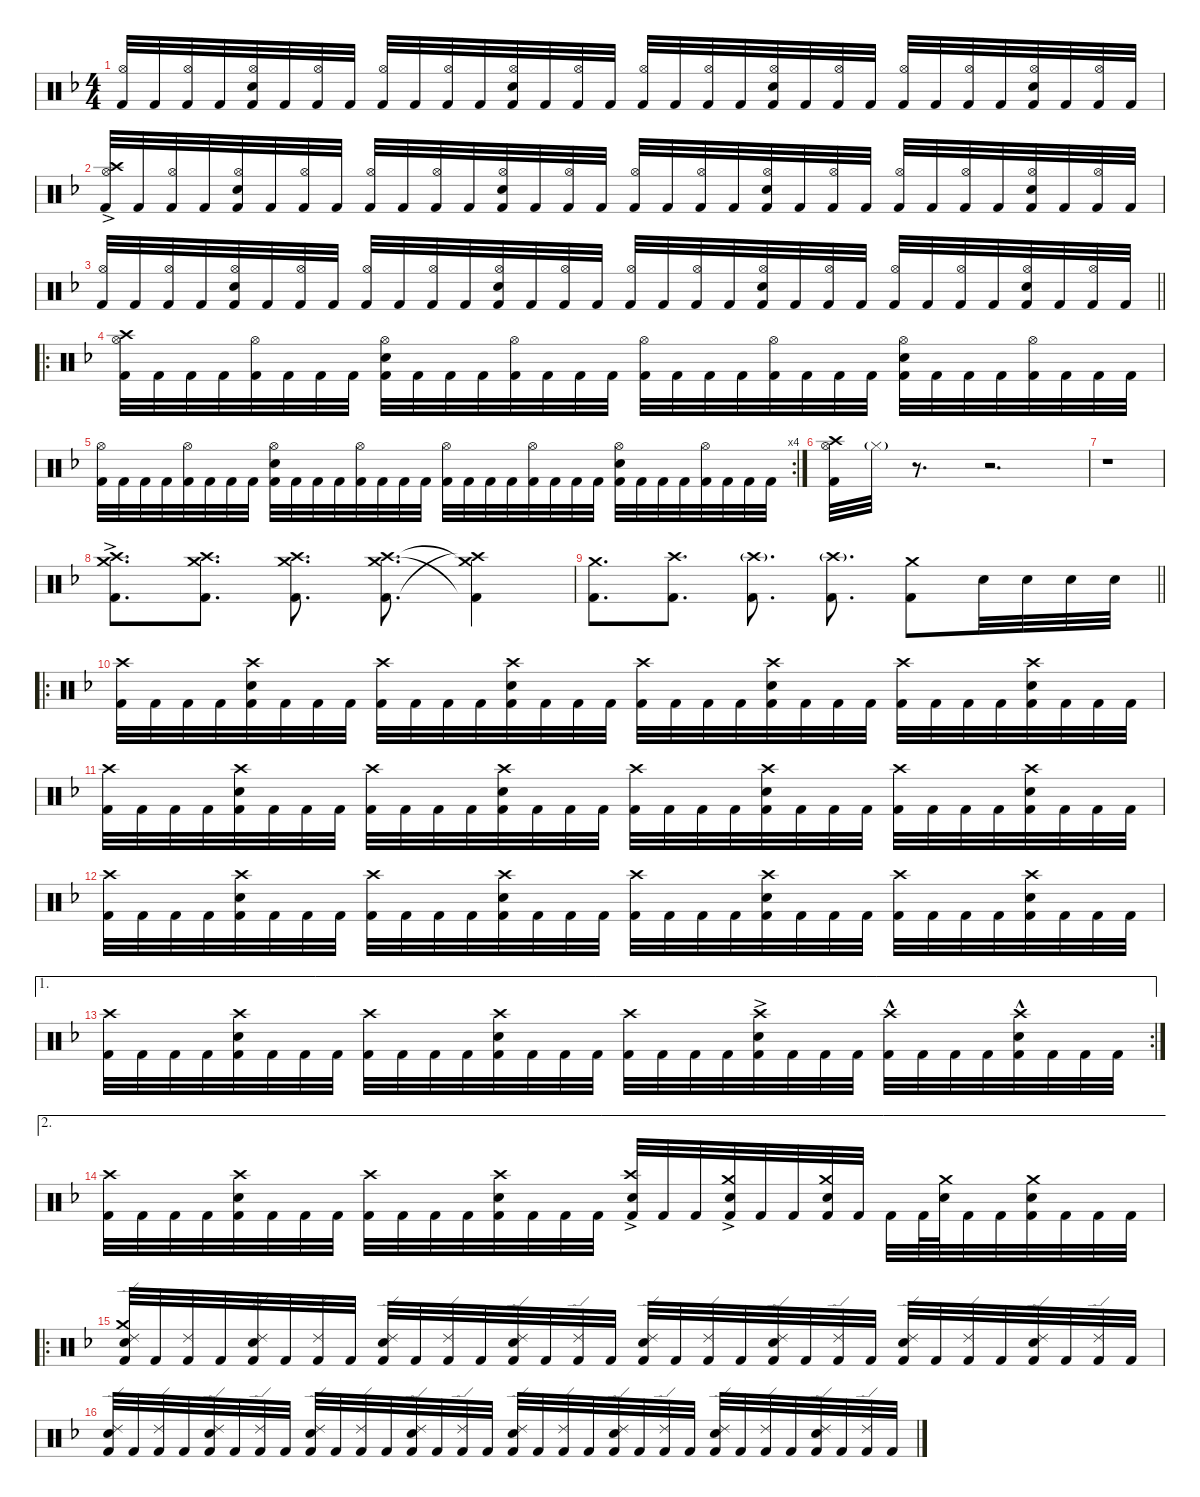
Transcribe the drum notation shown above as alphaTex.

\defaultSystemsLayout 4
\hideDynamics
\bracketExtendMode nobrackets
\singleTrackTrackNamePolicy hidden
\multiTrackTrackNamePolicy hidden
\otherSystemsTrackNameOrientation horizontal
\track ("Martin Lopez - Drums" "drm.") {defaultSystemsLayout 4 instrument percussion}
\staff {score}
\articulation defaults
\ts (4 4)
\tempo (85 hide)
\clef neutral
\ks dminor
("Hi-Hat (open)"{acc forcenatural} "Kick (hit) 2"{acc forcenatural}).32{dy f beam Up} "Kick (hit) 2"{acc forcenatural}.32{beam Up} ("Hi-Hat (open)"{acc forcenatural} "Kick (hit) 2"{acc forcenatural}).32{beam Up} "Kick (hit) 2"{acc forcenatural}.32{beam Up} ("Hi-Hat (open)"{acc forcenatural} "Snare (hit) 2"{acc forcenatural} "Kick (hit) 2"{acc forcenatural}).32{beam Up} "Kick (hit) 2"{acc forcenatural}.32{beam Up} ("Hi-Hat (open)"{acc forcenatural} "Kick (hit) 2"{acc forcenatural}).32{beam Up} "Kick (hit) 2"{acc forcenatural}.32{beam Up} ("Hi-Hat (open)"{acc forcenatural} "Kick (hit) 2"{acc forcenatural}).32{beam Up} "Kick (hit) 2"{acc forcenatural}.32{beam Up} ("Hi-Hat (open)"{acc forcenatural} "Kick (hit) 2"{acc forcenatural}).32{beam Up} "Kick (hit) 2"{acc forcenatural}.32{beam Up} ("Hi-Hat (open)"{acc forcenatural} "Snare (hit) 2"{acc forcenatural} "Kick (hit) 2"{acc forcenatural}).32{beam Up} "Kick (hit) 2"{acc forcenatural}.32{beam Up} ("Hi-Hat (open)"{acc forcenatural} "Kick (hit) 2"{acc forcenatural}).32{beam Up} "Kick (hit) 2"{acc forcenatural}.32{beam Up} ("Hi-Hat (open)"{acc forcenatural} "Kick (hit) 2"{acc forcenatural}).32{beam Up} "Kick (hit) 2"{acc forcenatural}.32{beam Up} ("Hi-Hat (open)"{acc forcenatural} "Kick (hit) 2"{acc forcenatural}).32{beam Up} "Kick (hit) 2"{acc forcenatural}.32{beam Up} ("Hi-Hat (open)"{acc forcenatural} "Snare (hit) 2"{acc forcenatural} "Kick (hit) 2"{acc forcenatural}).32{beam Up} "Kick (hit) 2"{acc forcenatural}.32{beam Up} ("Hi-Hat (open)"{acc forcenatural} "Kick (hit) 2"{acc forcenatural}).32{beam Up} "Kick (hit) 2"{acc forcenatural}.32{beam Up} ("Hi-Hat (open)"{acc forcenatural} "Kick (hit) 2"{acc forcenatural}).32{beam Up} "Kick (hit) 2"{acc forcenatural}.32{beam Up} ("Hi-Hat (open)"{acc forcenatural} "Kick (hit) 2"{acc forcenatural}).32{beam Up} "Kick (hit) 2"{acc forcenatural}.32{beam Up} ("Hi-Hat (open)"{acc forcenatural} "Snare (hit) 2"{acc forcenatural} "Kick (hit) 2"{acc forcenatural}).32{beam Up} "Kick (hit) 2"{acc forcenatural}.32{beam Up} ("Hi-Hat (open)"{acc forcenatural} "Kick (hit) 2"{acc forcenatural}).32{beam Up} "Kick (hit) 2"{acc forcenatural}.32{beam Up} |
\tempo (84 0.00625 hide)
("Crash high (hit)"{ac acc forcenatural} "Hi-Hat (open)"{acc forcenatural} "Kick (hit) 2"{acc forcenatural}).32{beam Up} "Kick (hit) 2"{acc forcenatural}.32{beam Up} ("Hi-Hat (open)"{acc forcenatural} "Kick (hit) 2"{acc forcenatural}).32{beam Up} "Kick (hit) 2"{acc forcenatural}.32{beam Up} ("Hi-Hat (open)"{acc forcenatural} "Snare (hit) 2"{acc forcenatural} "Kick (hit) 2"{acc forcenatural}).32{beam Up} "Kick (hit) 2"{acc forcenatural}.32{beam Up} ("Hi-Hat (open)"{acc forcenatural} "Kick (hit) 2"{acc forcenatural}).32{beam Up} "Kick (hit) 2"{acc forcenatural}.32{beam Up} ("Hi-Hat (open)"{acc forcenatural} "Kick (hit) 2"{acc forcenatural}).32{beam Up} "Kick (hit) 2"{acc forcenatural}.32{beam Up} ("Hi-Hat (open)"{acc forcenatural} "Kick (hit) 2"{acc forcenatural}).32{beam Up} "Kick (hit) 2"{acc forcenatural}.32{beam Up} ("Hi-Hat (open)"{acc forcenatural} "Snare (hit) 2"{acc forcenatural} "Kick (hit) 2"{acc forcenatural}).32{beam Up} "Kick (hit) 2"{acc forcenatural}.32{beam Up} ("Hi-Hat (open)"{acc forcenatural} "Kick (hit) 2"{acc forcenatural}).32{beam Up} "Kick (hit) 2"{acc forcenatural}.32{beam Up} ("Hi-Hat (open)"{acc forcenatural} "Kick (hit) 2"{acc forcenatural}).32{beam Up} "Kick (hit) 2"{acc forcenatural}.32{beam Up} ("Hi-Hat (open)"{acc forcenatural} "Kick (hit) 2"{acc forcenatural}).32{beam Up} "Kick (hit) 2"{acc forcenatural}.32{beam Up} ("Hi-Hat (open)"{acc forcenatural} "Snare (hit) 2"{acc forcenatural} "Kick (hit) 2"{acc forcenatural}).32{beam Up} "Kick (hit) 2"{acc forcenatural}.32{beam Up} ("Hi-Hat (open)"{acc forcenatural} "Kick (hit) 2"{acc forcenatural}).32{beam Up} "Kick (hit) 2"{acc forcenatural}.32{beam Up} ("Hi-Hat (open)"{acc forcenatural} "Kick (hit) 2"{acc forcenatural}).32{beam Up} "Kick (hit) 2"{acc forcenatural}.32{beam Up} ("Hi-Hat (open)"{acc forcenatural} "Kick (hit) 2"{acc forcenatural}).32{beam Up} "Kick (hit) 2"{acc forcenatural}.32{beam Up} ("Hi-Hat (open)"{acc forcenatural} "Snare (hit) 2"{acc forcenatural} "Kick (hit) 2"{acc forcenatural}).32{beam Up} "Kick (hit) 2"{acc forcenatural}.32{beam Up} ("Hi-Hat (open)"{acc forcenatural} "Kick (hit) 2"{acc forcenatural}).32{beam Up} "Kick (hit) 2"{acc forcenatural}.32{beam Up} |
\tempo (85 hide)
\barLineRight lightlight
("Hi-Hat (open)"{acc forcenatural} "Kick (hit) 2"{acc forcenatural}).32{beam Up} "Kick (hit) 2"{acc forcenatural}.32{beam Up} ("Hi-Hat (open)"{acc forcenatural} "Kick (hit) 2"{acc forcenatural}).32{beam Up} "Kick (hit) 2"{acc forcenatural}.32{beam Up} ("Hi-Hat (open)"{acc forcenatural} "Snare (hit) 2"{acc forcenatural} "Kick (hit) 2"{acc forcenatural}).32{beam Up} "Kick (hit) 2"{acc forcenatural}.32{beam Up} ("Hi-Hat (open)"{acc forcenatural} "Kick (hit) 2"{acc forcenatural}).32{beam Up} "Kick (hit) 2"{acc forcenatural}.32{beam Up} ("Hi-Hat (open)"{acc forcenatural} "Kick (hit) 2"{acc forcenatural}).32{beam Up} "Kick (hit) 2"{acc forcenatural}.32{beam Up} ("Hi-Hat (open)"{acc forcenatural} "Kick (hit) 2"{acc forcenatural}).32{beam Up} "Kick (hit) 2"{acc forcenatural}.32{beam Up} ("Hi-Hat (open)"{acc forcenatural} "Snare (hit) 2"{acc forcenatural} "Kick (hit) 2"{acc forcenatural}).32{beam Up} "Kick (hit) 2"{acc forcenatural}.32{beam Up} ("Hi-Hat (open)"{acc forcenatural} "Kick (hit) 2"{acc forcenatural}).32{beam Up} "Kick (hit) 2"{acc forcenatural}.32{beam Up} ("Hi-Hat (open)"{acc forcenatural} "Kick (hit) 2"{acc forcenatural}).32{beam Up} "Kick (hit) 2"{acc forcenatural}.32{beam Up} ("Hi-Hat (open)"{acc forcenatural} "Kick (hit) 2"{acc forcenatural}).32{beam Up} "Kick (hit) 2"{acc forcenatural}.32{beam Up} ("Hi-Hat (open)"{acc forcenatural} "Snare (hit) 2"{acc forcenatural} "Kick (hit) 2"{acc forcenatural}).32{beam Up} "Kick (hit) 2"{acc forcenatural}.32{beam Up} ("Hi-Hat (open)"{acc forcenatural} "Kick (hit) 2"{acc forcenatural}).32{beam Up} "Kick (hit) 2"{acc forcenatural}.32{beam Up} ("Hi-Hat (open)"{acc forcenatural} "Kick (hit) 2"{acc forcenatural}).32{beam Up} "Kick (hit) 2"{acc forcenatural}.32{beam Up} ("Hi-Hat (open)"{acc forcenatural} "Kick (hit) 2"{acc forcenatural}).32{beam Up} "Kick (hit) 2"{acc forcenatural}.32{beam Up} ("Hi-Hat (open)"{acc forcenatural} "Snare (hit) 2"{acc forcenatural} "Kick (hit) 2"{acc forcenatural}).32{beam Up} "Kick (hit) 2"{acc forcenatural}.32{beam Up} ("Hi-Hat (open)"{acc forcenatural} "Kick (hit) 2"{acc forcenatural}).32{beam Up} "Kick (hit) 2"{acc forcenatural}.32{beam Up} |
\ro
\tempo (84 hide)
("Crash high (hit)"{acc forcenatural} "Hi-Hat (open)"{acc forcenatural} "Kick (hit) 2"{acc forcenatural}).32{beam Down} "Kick (hit) 2"{acc forcenatural}.32{beam Down} "Kick (hit) 2"{acc forcenatural}.32{beam Down} "Kick (hit) 2"{acc forcenatural}.32{beam Down} ("Hi-Hat (open)"{acc forcenatural} "Kick (hit) 2"{acc forcenatural}).32{beam Down} "Kick (hit) 2"{acc forcenatural}.32{beam Down} "Kick (hit) 2"{acc forcenatural}.32{beam Down} "Kick (hit) 2"{acc forcenatural}.32{beam Down} ("Hi-Hat (open)"{acc forcenatural} "Snare (hit) 2"{acc forcenatural} "Kick (hit) 2"{acc forcenatural}).32{beam Down} "Kick (hit) 2"{acc forcenatural}.32{beam Down} "Kick (hit) 2"{acc forcenatural}.32{beam Down} "Kick (hit) 2"{acc forcenatural}.32{beam Down} ("Hi-Hat (open)"{acc forcenatural} "Kick (hit) 2"{acc forcenatural}).32{beam Down} "Kick (hit) 2"{acc forcenatural}.32{beam Down} "Kick (hit) 2"{acc forcenatural}.32{beam Down} "Kick (hit) 2"{acc forcenatural}.32{beam Down} ("Hi-Hat (open)"{acc forcenatural} "Kick (hit) 2"{acc forcenatural}).32{beam Down} "Kick (hit) 2"{acc forcenatural}.32{beam Down} "Kick (hit) 2"{acc forcenatural}.32{beam Down} "Kick (hit) 2"{acc forcenatural}.32{beam Down} ("Hi-Hat (open)"{acc forcenatural} "Kick (hit) 2"{acc forcenatural}).32{beam Down} "Kick (hit) 2"{acc forcenatural}.32{beam Down} "Kick (hit) 2"{acc forcenatural}.32{beam Down} "Kick (hit) 2"{acc forcenatural}.32{beam Down} ("Hi-Hat (open)"{acc forcenatural} "Snare (hit) 2"{acc forcenatural} "Kick (hit) 2"{acc forcenatural}).32{beam Down} "Kick (hit) 2"{acc forcenatural}.32{beam Down} "Kick (hit) 2"{acc forcenatural}.32{beam Down} "Kick (hit) 2"{acc forcenatural}.32{beam Down} ("Hi-Hat (open)"{acc forcenatural} "Kick (hit) 2"{acc forcenatural}).32{beam Down} "Kick (hit) 2"{acc forcenatural}.32{beam Down} "Kick (hit) 2"{acc forcenatural}.32{beam Down} "Kick (hit) 2"{acc forcenatural}.32{beam Down} |
\rc 4
\tempo (85 0.0125 hide)
("Hi-Hat (open)"{acc forcenatural} "Kick (hit) 2"{acc forcenatural}).32{beam Down} "Kick (hit) 2"{acc forcenatural}.32{beam Down} "Kick (hit) 2"{acc forcenatural}.32{beam Down} "Kick (hit) 2"{acc forcenatural}.32{beam Down} ("Hi-Hat (open)"{acc forcenatural} "Kick (hit) 2"{acc forcenatural}).32{beam Down} "Kick (hit) 2"{acc forcenatural}.32{beam Down} "Kick (hit) 2"{acc forcenatural}.32{beam Down} "Kick (hit) 2"{acc forcenatural}.32{beam Down} ("Hi-Hat (open)"{acc forcenatural} "Snare (hit) 2"{acc forcenatural} "Kick (hit) 2"{acc forcenatural}).32{beam Down} "Kick (hit) 2"{acc forcenatural}.32{beam Down} "Kick (hit) 2"{acc forcenatural}.32{beam Down} "Kick (hit) 2"{acc forcenatural}.32{beam Down} ("Hi-Hat (open)"{acc forcenatural} "Kick (hit) 2"{acc forcenatural}).32{beam Down} "Kick (hit) 2"{acc forcenatural}.32{beam Down} "Kick (hit) 2"{acc forcenatural}.32{beam Down} "Kick (hit) 2"{acc forcenatural}.32{beam Down} ("Hi-Hat (open)"{acc forcenatural} "Kick (hit) 2"{acc forcenatural}).32{beam Down} "Kick (hit) 2"{acc forcenatural}.32{beam Down} "Kick (hit) 2"{acc forcenatural}.32{beam Down} "Kick (hit) 2"{acc forcenatural}.32{beam Down} ("Hi-Hat (open)"{acc forcenatural} "Kick (hit) 2"{acc forcenatural}).32{beam Down} "Kick (hit) 2"{acc forcenatural}.32{beam Down} "Kick (hit) 2"{acc forcenatural}.32{beam Down} "Kick (hit) 2"{acc forcenatural}.32{beam Down} ("Hi-Hat (open)"{acc forcenatural} "Snare (hit) 2"{acc forcenatural} "Kick (hit) 2"{acc forcenatural}).32{beam Down} "Kick (hit) 2"{acc forcenatural}.32{beam Down} "Kick (hit) 2"{acc forcenatural}.32{beam Down} "Kick (hit) 2"{acc forcenatural}.32{beam Down} ("Hi-Hat (open)"{acc forcenatural} "Kick (hit) 2"{acc forcenatural}).32{beam Down} "Kick (hit) 2"{acc forcenatural}.32{beam Down} "Kick (hit) 2"{acc forcenatural}.32{beam Down} "Kick (hit) 2"{acc forcenatural}.32{beam Down} |
\tempo (84 0.00625 hide)
("Crash high (hit)"{acc forcenatural} "Hi-Hat (open)"{acc forcenatural} "Kick (hit) 2"{acc forcenatural}).32{beam Down} "Hi-Hat (closed)"{g acc forcenatural}.32{dy mf beam Down} r.8{d beam Down} r.2{d beam Down} |
\tempo (85 0.00625 hide)
r.1{beam Down} |
\tempo (84 0.0125 hide)
("Crash medium (hit)"{ac acc forcenatural} "Crash high (hit)"{ac acc forcenatural} "Kick (hit) 2"{ac acc forcenatural}).8{d dy f beam Down} ("Crash medium (hit)"{acc forcenatural} "Crash high (hit)"{acc forcenatural} "Kick (hit) 2"{acc forcenatural}).8{d beam Down} ("Crash medium (hit)"{acc forcenatural} "Crash high (hit)"{acc forcenatural} "Kick (hit) 2"{acc forcenatural}).8{d beam Down} ("Crash medium (hit)"{acc forcenatural} "Crash high (hit)"{acc forcenatural} "Kick (hit) 2"{acc forcenatural}).8{d beam Down} ("Kick (hit) 2"{t acc forcenatural} "Crash medium (hit)"{t acc forcenatural} "Crash high (hit)"{t acc forcenatural}).4{dy mf beam Down} |
\tempo (85 0.00625 hide)
\barLineRight lightlight
("Crash medium (hit)"{acc forcenatural} "Kick (hit) 2"{acc forcenatural}).8{d dy f beam Down} ("Crash high (hit)"{acc forcenatural} "Kick (hit) 2"{acc forcenatural}).8{d beam Down} ("Crash high (hit)"{g acc forcenatural} "Kick (hit) 2"{acc forcenatural}).8{d beam Down} ("Crash high (hit)"{g acc forcenatural} "Kick (hit) 2"{acc forcenatural}).8{d beam Down} ("Crash medium (hit)"{acc forcenatural} "Kick (hit) 2"{acc forcenatural}).8{beam Down} "Snare (hit) 2"{acc forcenatural}.32{beam Down} "Snare (hit) 2"{acc forcenatural}.32{beam Down} "Snare (hit) 2"{acc forcenatural}.32{beam Down} "Snare (hit) 2"{acc forcenatural}.32{beam Down} |
\ro
\tempo (84 0.00625 hide)
("Crash high (hit)"{acc forcenatural} "Kick (hit) 2"{acc forcenatural}).32{beam Down} "Kick (hit) 2"{acc forcenatural}.32{beam Down} "Kick (hit) 2"{acc forcenatural}.32{beam Down} "Kick (hit) 2"{acc forcenatural}.32{beam Down} ("Crash high (hit)"{acc forcenatural} "Snare (hit) 2"{acc forcenatural} "Kick (hit) 2"{acc forcenatural}).32{beam Down} "Kick (hit) 2"{acc forcenatural}.32{beam Down} "Kick (hit) 2"{acc forcenatural}.32{beam Down} "Kick (hit) 2"{acc forcenatural}.32{beam Down} ("Crash high (hit)"{acc forcenatural} "Kick (hit) 2"{acc forcenatural}).32{beam Down} "Kick (hit) 2"{acc forcenatural}.32{beam Down} "Kick (hit) 2"{acc forcenatural}.32{beam Down} "Kick (hit) 2"{acc forcenatural}.32{beam Down} ("Crash high (hit)"{acc forcenatural} "Snare (hit) 2"{acc forcenatural} "Kick (hit) 2"{acc forcenatural}).32{beam Down} "Kick (hit) 2"{acc forcenatural}.32{beam Down} "Kick (hit) 2"{acc forcenatural}.32{beam Down} "Kick (hit) 2"{acc forcenatural}.32{beam Down} ("Crash high (hit)"{acc forcenatural} "Kick (hit) 2"{acc forcenatural}).32{beam Down} "Kick (hit) 2"{acc forcenatural}.32{beam Down} "Kick (hit) 2"{acc forcenatural}.32{beam Down} "Kick (hit) 2"{acc forcenatural}.32{beam Down} ("Crash high (hit)"{acc forcenatural} "Snare (hit) 2"{acc forcenatural} "Kick (hit) 2"{acc forcenatural}).32{beam Down} "Kick (hit) 2"{acc forcenatural}.32{beam Down} "Kick (hit) 2"{acc forcenatural}.32{beam Down} "Kick (hit) 2"{acc forcenatural}.32{beam Down} ("Crash high (hit)"{acc forcenatural} "Kick (hit) 2"{acc forcenatural}).32{beam Down} "Kick (hit) 2"{acc forcenatural}.32{beam Down} "Kick (hit) 2"{acc forcenatural}.32{beam Down} "Kick (hit) 2"{acc forcenatural}.32{beam Down} ("Crash high (hit)"{acc forcenatural} "Snare (hit) 2"{acc forcenatural} "Kick (hit) 2"{acc forcenatural}).32{beam Down} "Kick (hit) 2"{acc forcenatural}.32{beam Down} "Kick (hit) 2"{acc forcenatural}.32{beam Down} "Kick (hit) 2"{acc forcenatural}.32{beam Down} |
\tempo (85 0.00625 hide)
("Crash high (hit)"{acc forcenatural} "Kick (hit) 2"{acc forcenatural}).32{beam Down} "Kick (hit) 2"{acc forcenatural}.32{beam Down} "Kick (hit) 2"{acc forcenatural}.32{beam Down} "Kick (hit) 2"{acc forcenatural}.32{beam Down} ("Crash high (hit)"{acc forcenatural} "Snare (hit) 2"{acc forcenatural} "Kick (hit) 2"{acc forcenatural}).32{beam Down} "Kick (hit) 2"{acc forcenatural}.32{beam Down} "Kick (hit) 2"{acc forcenatural}.32{beam Down} "Kick (hit) 2"{acc forcenatural}.32{beam Down} ("Crash high (hit)"{acc forcenatural} "Kick (hit) 2"{acc forcenatural}).32{beam Down} "Kick (hit) 2"{acc forcenatural}.32{beam Down} "Kick (hit) 2"{acc forcenatural}.32{beam Down} "Kick (hit) 2"{acc forcenatural}.32{beam Down} ("Crash high (hit)"{acc forcenatural} "Snare (hit) 2"{acc forcenatural} "Kick (hit) 2"{acc forcenatural}).32{beam Down} "Kick (hit) 2"{acc forcenatural}.32{beam Down} "Kick (hit) 2"{acc forcenatural}.32{beam Down} "Kick (hit) 2"{acc forcenatural}.32{beam Down} ("Crash high (hit)"{acc forcenatural} "Kick (hit) 2"{acc forcenatural}).32{beam Down} "Kick (hit) 2"{acc forcenatural}.32{beam Down} "Kick (hit) 2"{acc forcenatural}.32{beam Down} "Kick (hit) 2"{acc forcenatural}.32{beam Down} ("Crash high (hit)"{acc forcenatural} "Snare (hit) 2"{acc forcenatural} "Kick (hit) 2"{acc forcenatural}).32{beam Down} "Kick (hit) 2"{acc forcenatural}.32{beam Down} "Kick (hit) 2"{acc forcenatural}.32{beam Down} "Kick (hit) 2"{acc forcenatural}.32{beam Down} ("Crash high (hit)"{acc forcenatural} "Kick (hit) 2"{acc forcenatural}).32{beam Down} "Kick (hit) 2"{acc forcenatural}.32{beam Down} "Kick (hit) 2"{acc forcenatural}.32{beam Down} "Kick (hit) 2"{acc forcenatural}.32{beam Down} ("Crash high (hit)"{acc forcenatural} "Snare (hit) 2"{acc forcenatural} "Kick (hit) 2"{acc forcenatural}).32{beam Down} "Kick (hit) 2"{acc forcenatural}.32{beam Down} "Kick (hit) 2"{acc forcenatural}.32{beam Down} "Kick (hit) 2"{acc forcenatural}.32{beam Down} |
\tempo (84 hide)
("Crash high (hit)"{acc forcenatural} "Kick (hit) 2"{acc forcenatural}).32{beam Down} "Kick (hit) 2"{acc forcenatural}.32{beam Down} "Kick (hit) 2"{acc forcenatural}.32{beam Down} "Kick (hit) 2"{acc forcenatural}.32{beam Down} ("Crash high (hit)"{acc forcenatural} "Snare (hit) 2"{acc forcenatural} "Kick (hit) 2"{acc forcenatural}).32{beam Down} "Kick (hit) 2"{acc forcenatural}.32{beam Down} "Kick (hit) 2"{acc forcenatural}.32{beam Down} "Kick (hit) 2"{acc forcenatural}.32{beam Down} ("Crash high (hit)"{acc forcenatural} "Kick (hit) 2"{acc forcenatural}).32{beam Down} "Kick (hit) 2"{acc forcenatural}.32{beam Down} "Kick (hit) 2"{acc forcenatural}.32{beam Down} "Kick (hit) 2"{acc forcenatural}.32{beam Down} ("Crash high (hit)"{acc forcenatural} "Snare (hit) 2"{acc forcenatural} "Kick (hit) 2"{acc forcenatural}).32{beam Down} "Kick (hit) 2"{acc forcenatural}.32{beam Down} "Kick (hit) 2"{acc forcenatural}.32{beam Down} "Kick (hit) 2"{acc forcenatural}.32{beam Down} ("Crash high (hit)"{acc forcenatural} "Kick (hit) 2"{acc forcenatural}).32{beam Down} "Kick (hit) 2"{acc forcenatural}.32{beam Down} "Kick (hit) 2"{acc forcenatural}.32{beam Down} "Kick (hit) 2"{acc forcenatural}.32{beam Down} ("Crash high (hit)"{acc forcenatural} "Snare (hit) 2"{acc forcenatural} "Kick (hit) 2"{acc forcenatural}).32{beam Down} "Kick (hit) 2"{acc forcenatural}.32{beam Down} "Kick (hit) 2"{acc forcenatural}.32{beam Down} "Kick (hit) 2"{acc forcenatural}.32{beam Down} ("Crash high (hit)"{acc forcenatural} "Kick (hit) 2"{acc forcenatural}).32{beam Down} "Kick (hit) 2"{acc forcenatural}.32{beam Down} "Kick (hit) 2"{acc forcenatural}.32{beam Down} "Kick (hit) 2"{acc forcenatural}.32{beam Down} ("Crash high (hit)"{acc forcenatural} "Snare (hit) 2"{acc forcenatural} "Kick (hit) 2"{acc forcenatural}).32{beam Down} "Kick (hit) 2"{acc forcenatural}.32{beam Down} "Kick (hit) 2"{acc forcenatural}.32{beam Down} "Kick (hit) 2"{acc forcenatural}.32{beam Down} |
\ae 1
\rc 2
\tempo (85 hide)
("Crash high (hit)"{acc forcenatural} "Kick (hit) 2"{acc forcenatural}).32{beam Down} "Kick (hit) 2"{acc forcenatural}.32{beam Down} "Kick (hit) 2"{acc forcenatural}.32{beam Down} "Kick (hit) 2"{acc forcenatural}.32{beam Down} ("Crash high (hit)"{acc forcenatural} "Snare (hit) 2"{acc forcenatural} "Kick (hit) 2"{acc forcenatural}).32{beam Down} "Kick (hit) 2"{acc forcenatural}.32{beam Down} "Kick (hit) 2"{acc forcenatural}.32{beam Down} "Kick (hit) 2"{acc forcenatural}.32{beam Down} ("Crash high (hit)"{acc forcenatural} "Kick (hit) 2"{acc forcenatural}).32{beam Down} "Kick (hit) 2"{acc forcenatural}.32{beam Down} "Kick (hit) 2"{acc forcenatural}.32{beam Down} "Kick (hit) 2"{acc forcenatural}.32{beam Down} ("Crash high (hit)"{acc forcenatural} "Snare (hit) 2"{acc forcenatural} "Kick (hit) 2"{acc forcenatural}).32{beam Down} "Kick (hit) 2"{acc forcenatural}.32{beam Down} "Kick (hit) 2"{acc forcenatural}.32{beam Down} "Kick (hit) 2"{acc forcenatural}.32{beam Down} ("Crash high (hit)"{acc forcenatural} "Kick (hit) 2"{acc forcenatural}).32{beam Down} "Kick (hit) 2"{acc forcenatural}.32{beam Down} "Kick (hit) 2"{acc forcenatural}.32{beam Down} "Kick (hit) 2"{acc forcenatural}.32{beam Down} ("Crash high (hit)"{ac acc forcenatural} "Snare (hit) 2"{acc forcenatural} "Kick (hit) 2"{acc forcenatural}).32{beam Down} "Kick (hit) 2"{acc forcenatural}.32{beam Down} "Kick (hit) 2"{acc forcenatural}.32{beam Down} "Kick (hit) 2"{acc forcenatural}.32{beam Down} ("Crash high (hit)"{hac acc forcenatural} "Kick (hit) 2"{acc forcenatural}).32{beam Down} "Kick (hit) 2"{acc forcenatural}.32{beam Down} "Kick (hit) 2"{acc forcenatural}.32{beam Down} "Kick (hit) 2"{acc forcenatural}.32{beam Down} ("Crash high (hit)"{hac acc forcenatural} "Snare (hit) 2"{acc forcenatural} "Kick (hit) 2"{acc forcenatural}).32{beam Down} "Kick (hit) 2"{acc forcenatural}.32{beam Down} "Kick (hit) 2"{acc forcenatural}.32{beam Down} "Kick (hit) 2"{acc forcenatural}.32{beam Down} |
\ae 2
\tempo (84 0.00625 hide)
("Crash high (hit)"{acc forcenatural} "Kick (hit) 2"{acc forcenatural}).32{beam Down} "Kick (hit) 2"{acc forcenatural}.32{beam Down} "Kick (hit) 2"{acc forcenatural}.32{beam Down} "Kick (hit) 2"{acc forcenatural}.32{beam Down} ("Crash high (hit)"{acc forcenatural} "Snare (hit) 2"{acc forcenatural} "Kick (hit) 2"{acc forcenatural}).32{beam Down} "Kick (hit) 2"{acc forcenatural}.32{beam Down} "Kick (hit) 2"{acc forcenatural}.32{beam Down} "Kick (hit) 2"{acc forcenatural}.32{beam Down} ("Crash high (hit)"{acc forcenatural} "Kick (hit) 2"{acc forcenatural}).32{beam Down} "Kick (hit) 2"{acc forcenatural}.32{beam Down} "Kick (hit) 2"{acc forcenatural}.32{beam Down} "Kick (hit) 2"{acc forcenatural}.32{beam Down} ("Crash high (hit)"{acc forcenatural} "Snare (hit) 2"{acc forcenatural} "Kick (hit) 2"{acc forcenatural}).32{beam Down} "Kick (hit) 2"{acc forcenatural}.32{beam Down} "Kick (hit) 2"{acc forcenatural}.32{beam Down} "Kick (hit) 2"{acc forcenatural}.32{beam Down} ("Crash high (hit)"{ac acc forcenatural} "Snare (hit) 2"{acc forcenatural} "Kick (hit) 2"{acc forcenatural}).32{beam Up} "Kick (hit) 2"{acc forcenatural}.32{beam Up} "Kick (hit) 2"{acc forcenatural}.32{beam Up} ("Crash medium (hit)"{ac acc forcenatural} "Snare (hit) 2"{acc forcenatural} "Kick (hit) 2"{acc forcenatural}).32{beam Up} "Kick (hit) 2"{acc forcenatural}.32{beam Up} "Kick (hit) 2"{acc forcenatural}.32{beam Up} ("Crash medium (hit)"{acc forcenatural} "Snare (hit) 2"{acc forcenatural} "Kick (hit) 2"{acc forcenatural}).32{beam Up} "Kick (hit) 2"{acc forcenatural}.32{beam Up} "Kick (hit) 2"{acc forcenatural}.32{beam Down} "Kick (hit) 2"{acc forcenatural}.64{beam Down} ("Crash medium (hit)"{acc forcenatural} "Snare (hit) 2"{acc forcenatural}).64{beam Down} "Kick (hit) 2"{acc forcenatural}.32{beam Down} "Kick (hit) 2"{acc forcenatural}.32{beam Down} ("Crash medium (hit)"{acc forcenatural} "Snare (hit) 2"{acc forcenatural} "Kick (hit) 2"{acc forcenatural}).32{beam Down} "Kick (hit) 2"{acc forcenatural}.32{beam Down} "Kick (hit) 2"{acc forcenatural}.32{beam Down} "Kick (hit) 2"{acc forcenatural}.32{beam Down} |
\ro
\tempo (85 hide)
("Ride (edge) 2"{acc forcenatural} "Crash medium (hit)"{acc forcenatural} "Snare (hit) 2"{acc forcenatural} "Kick (hit) 2"{acc forcenatural}).32{beam Up} "Kick (hit) 2"{acc forcenatural}.32{beam Up} ("Ride (edge) 2"{acc forcenatural} "Kick (hit) 2"{acc forcenatural}).32{beam Up} "Kick (hit) 2"{acc forcenatural}.32{beam Up} ("Ride (edge) 2"{acc forcenatural} "Snare (hit) 2"{acc forcenatural} "Kick (hit) 2"{acc forcenatural}).32{beam Up} "Kick (hit) 2"{acc forcenatural}.32{beam Up} ("Ride (edge) 2"{acc forcenatural} "Kick (hit) 2"{acc forcenatural}).32{beam Up} "Kick (hit) 2"{acc forcenatural}.32{beam Up} ("Ride (edge) 2"{acc forcenatural} "Snare (hit) 2"{acc forcenatural} "Kick (hit) 2"{acc forcenatural}).32{beam Up} "Kick (hit) 2"{acc forcenatural}.32{beam Up} ("Ride (edge) 2"{acc forcenatural} "Kick (hit) 2"{acc forcenatural}).32{beam Up} "Kick (hit) 2"{acc forcenatural}.32{beam Up} ("Ride (edge) 2"{acc forcenatural} "Snare (hit) 2"{acc forcenatural} "Kick (hit) 2"{acc forcenatural}).32{beam Up} "Kick (hit) 2"{acc forcenatural}.32{beam Up} ("Ride (edge) 2"{acc forcenatural} "Kick (hit) 2"{acc forcenatural}).32{beam Up} "Kick (hit) 2"{acc forcenatural}.32{beam Up} ("Ride (edge) 2"{acc forcenatural} "Snare (hit) 2"{acc forcenatural} "Kick (hit) 2"{acc forcenatural}).32{beam Up} "Kick (hit) 2"{acc forcenatural}.32{beam Up} ("Ride (edge) 2"{acc forcenatural} "Kick (hit) 2"{acc forcenatural}).32{beam Up} "Kick (hit) 2"{acc forcenatural}.32{beam Up} ("Ride (edge) 2"{acc forcenatural} "Snare (hit) 2"{acc forcenatural} "Kick (hit) 2"{acc forcenatural}).32{beam Up} "Kick (hit) 2"{acc forcenatural}.32{beam Up} ("Ride (edge) 2"{acc forcenatural} "Kick (hit) 2"{acc forcenatural}).32{beam Up} "Kick (hit) 2"{acc forcenatural}.32{beam Up} ("Ride (edge) 2"{acc forcenatural} "Snare (hit) 2"{acc forcenatural} "Kick (hit) 2"{acc forcenatural}).32{beam Up} "Kick (hit) 2"{acc forcenatural}.32{beam Up} ("Ride (edge) 2"{acc forcenatural} "Kick (hit) 2"{acc forcenatural}).32{beam Up} "Kick (hit) 2"{acc forcenatural}.32{beam Up} ("Ride (edge) 2"{acc forcenatural} "Snare (hit) 2"{acc forcenatural} "Kick (hit) 2"{acc forcenatural}).32{beam Up} "Kick (hit) 2"{acc forcenatural}.32{beam Up} ("Ride (edge) 2"{acc forcenatural} "Kick (hit) 2"{acc forcenatural}).32{beam Up} "Kick (hit) 2"{acc forcenatural}.32{beam Up} |
\tempo (84 hide)
("Ride (edge) 2"{acc forcenatural} "Snare (hit) 2"{acc forcenatural} "Kick (hit) 2"{acc forcenatural}).32{beam Up} "Kick (hit) 2"{acc forcenatural}.32{beam Up} ("Ride (edge) 2"{acc forcenatural} "Kick (hit) 2"{acc forcenatural}).32{beam Up} "Kick (hit) 2"{acc forcenatural}.32{beam Up} ("Ride (edge) 2"{acc forcenatural} "Snare (hit) 2"{acc forcenatural} "Kick (hit) 2"{acc forcenatural}).32{beam Up} "Kick (hit) 2"{acc forcenatural}.32{beam Up} ("Ride (edge) 2"{acc forcenatural} "Kick (hit) 2"{acc forcenatural}).32{beam Up} "Kick (hit) 2"{acc forcenatural}.32{beam Up} ("Ride (edge) 2"{acc forcenatural} "Snare (hit) 2"{acc forcenatural} "Kick (hit) 2"{acc forcenatural}).32{beam Up} "Kick (hit) 2"{acc forcenatural}.32{beam Up} ("Ride (edge) 2"{acc forcenatural} "Kick (hit) 2"{acc forcenatural}).32{beam Up} "Kick (hit) 2"{acc forcenatural}.32{beam Up} ("Ride (edge) 2"{acc forcenatural} "Snare (hit) 2"{acc forcenatural} "Kick (hit) 2"{acc forcenatural}).32{beam Up} "Kick (hit) 2"{acc forcenatural}.32{beam Up} ("Ride (edge) 2"{acc forcenatural} "Kick (hit) 2"{acc forcenatural}).32{beam Up} "Kick (hit) 2"{acc forcenatural}.32{beam Up} ("Ride (edge) 2"{acc forcenatural} "Snare (hit) 2"{acc forcenatural} "Kick (hit) 2"{acc forcenatural}).32{beam Up} "Kick (hit) 2"{acc forcenatural}.32{beam Up} ("Ride (edge) 2"{acc forcenatural} "Kick (hit) 2"{acc forcenatural}).32{beam Up} "Kick (hit) 2"{acc forcenatural}.32{beam Up} ("Ride (edge) 2"{acc forcenatural} "Snare (hit) 2"{acc forcenatural} "Kick (hit) 2"{acc forcenatural}).32{beam Up} "Kick (hit) 2"{acc forcenatural}.32{beam Up} ("Ride (edge) 2"{acc forcenatural} "Kick (hit) 2"{acc forcenatural}).32{beam Up} "Kick (hit) 2"{acc forcenatural}.32{beam Up} ("Ride (edge) 2"{acc forcenatural} "Snare (hit) 2"{acc forcenatural} "Kick (hit) 2"{acc forcenatural}).32{beam Up} "Kick (hit) 2"{acc forcenatural}.32{beam Up} ("Ride (edge) 2"{acc forcenatural} "Kick (hit) 2"{acc forcenatural}).32{beam Up} "Kick (hit) 2"{acc forcenatural}.32{beam Up} ("Ride (edge) 2"{acc forcenatural} "Snare (hit) 2"{acc forcenatural} "Kick (hit) 2"{acc forcenatural}).32{beam Up} "Kick (hit) 2"{acc forcenatural}.32{beam Up} ("Ride (edge) 2"{acc forcenatural} "Kick (hit) 2"{acc forcenatural}).32{beam Up} "Kick (hit) 2"{acc forcenatural}.32{beam Up}
